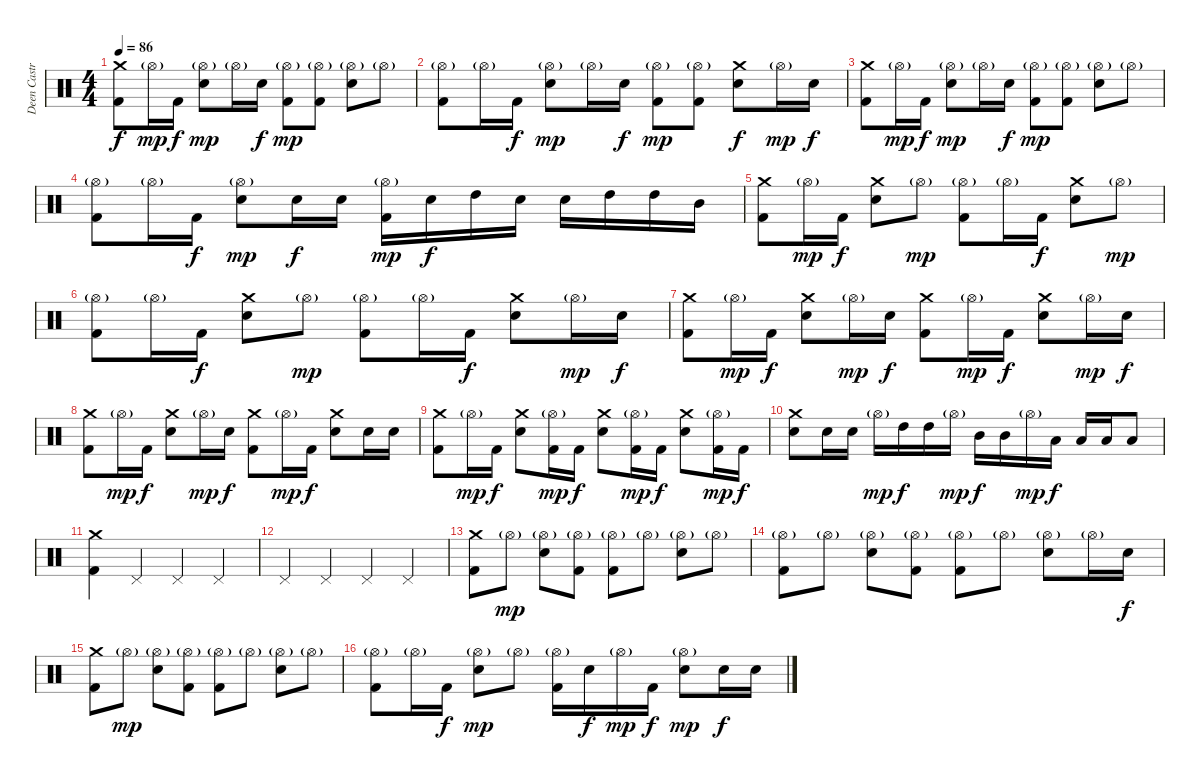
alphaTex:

\track ("Deen Castronovo" "Deen Castr") {instrument percussion}
\staff {score}
\articulation defaults
\ts (4 4)
\tempo 86
\clef neutral
\ks c
("Crash medium (hit)" "Kick (hit) 2").8{dy f} "Hi-Hat (open)"{g}.16{dy mp} "Kick (hit) 2".16{dy f} ("Hi-Hat (open)"{g} "Electric Snare (hit)").8{dy mp} "Hi-Hat (open)"{g}.16 "Electric Snare (hit)".16{dy f} ("Hi-Hat (open)"{g} "Kick (hit) 2").8{dy mp} ("Hi-Hat (open)"{g} "Kick (hit) 2").8 ("Hi-Hat (open)"{g} "Electric Snare (hit)").8 "Hi-Hat (open)"{g}.8 |
("Hi-Hat (open)"{g} "Kick (hit) 2").8 "Hi-Hat (open)"{g}.16 "Kick (hit) 2".16{dy f} ("Hi-Hat (open)"{g} "Electric Snare (hit)").8{dy mp} "Hi-Hat (open)"{g}.16 "Electric Snare (hit)".16{dy f} ("Hi-Hat (open)"{g} "Kick (hit) 2").8{dy mp} ("Hi-Hat (open)"{g} "Kick (hit) 2").8 ("Crash medium (hit)" "Electric Snare (hit)").8{dy f} "Hi-Hat (open)"{g}.16{dy mp} "Electric Snare (hit)".16{dy f} |
("Crash medium (hit)" "Kick (hit) 2").8 "Hi-Hat (open)"{g}.16{dy mp} "Kick (hit) 2".16{dy f} ("Hi-Hat (open)"{g} "Electric Snare (hit)").8{dy mp} "Hi-Hat (open)"{g}.16 "Electric Snare (hit)".16{dy f} ("Hi-Hat (open)"{g} "Kick (hit) 2").8{dy mp} ("Hi-Hat (open)"{g} "Kick (hit) 2").8 ("Hi-Hat (open)"{g} "Electric Snare (hit)").8 "Hi-Hat (open)"{g}.8 |
("Hi-Hat (open)"{g} "Kick (hit) 2").8 "Hi-Hat (open)"{g}.16 "Kick (hit) 2".16{dy f} ("Hi-Hat (open)"{g} "Electric Snare (hit)").8{dy mp} "Electric Snare (hit)".16{dy f} "Electric Snare (hit)".16 ("Hi-Hat (open)"{g} "Kick (hit) 2").16{dy mp} "Electric Snare (hit)".16{dy f} "High Tom (hit)".16 "Electric Snare (hit)".16 "Electric Snare (hit)".16 "High Tom (hit)".16 "High Tom (hit)".16 "Mid Tom (hit)".16 |
("Crash medium (hit)" "Kick (hit) 2").8 "Hi-Hat (open)"{g}.16{dy mp} "Kick (hit) 2".16{dy f} ("Crash medium (hit)" "Electric Snare (hit)").8 "Hi-Hat (open)"{g}.8{dy mp} ("Hi-Hat (open)"{g} "Kick (hit) 2").8 "Hi-Hat (open)"{g}.16 "Kick (hit) 2".16{dy f} ("Crash medium (hit)" "Electric Snare (hit)").8 "Hi-Hat (open)"{g}.8{dy mp} |
("Hi-Hat (open)"{g} "Kick (hit) 2").8 "Hi-Hat (open)"{g}.16 "Kick (hit) 2".16{dy f} ("Crash medium (hit)" "Electric Snare (hit)").8 "Hi-Hat (open)"{g}.8{dy mp} ("Hi-Hat (open)"{g} "Kick (hit) 2").8 "Hi-Hat (open)"{g}.16 "Kick (hit) 2".16{dy f} ("Crash medium (hit)" "Electric Snare (hit)").8 "Hi-Hat (open)"{g}.16{dy mp} "Electric Snare (hit)".16{dy f} |
("Crash medium (hit)" "Kick (hit) 2").8 "Hi-Hat (open)"{g}.16{dy mp} "Kick (hit) 2".16{dy f} ("Crash medium (hit)" "Electric Snare (hit)").8 "Hi-Hat (open)"{g}.16{dy mp} "Electric Snare (hit)".16{dy f} ("Crash medium (hit)" "Kick (hit) 2").8 "Hi-Hat (open)"{g}.16{dy mp} "Kick (hit) 2".16{dy f} ("Crash medium (hit)" "Electric Snare (hit)").8 "Hi-Hat (open)"{g}.16{dy mp} "Electric Snare (hit)".16{dy f} |
("Crash medium (hit)" "Kick (hit) 2").8 "Hi-Hat (open)"{g}.16{dy mp} "Kick (hit) 2".16{dy f} ("Crash medium (hit)" "Electric Snare (hit)").8 "Hi-Hat (open)"{g}.16{dy mp} "Electric Snare (hit)".16{dy f} ("Crash medium (hit)" "Kick (hit) 2").8 "Hi-Hat (open)"{g}.16{dy mp} "Kick (hit) 2".16{dy f} ("Crash medium (hit)" "Electric Snare (hit)").8 "Electric Snare (hit)".16 "Electric Snare (hit)".16 |
("Crash medium (hit)" "Kick (hit) 2").8 "Hi-Hat (open)"{g}.16{dy mp} "Kick (hit) 2".16{dy f} ("Crash medium (hit)" "Electric Snare (hit)").8 ("Hi-Hat (open)"{g} "Kick (hit) 2").16{dy mp} "Kick (hit) 2".16{dy f} ("Crash medium (hit)" "Electric Snare (hit)").8 ("Hi-Hat (open)"{g} "Kick (hit) 2").16{dy mp} "Kick (hit) 2".16{dy f} ("Crash medium (hit)" "Electric Snare (hit)").8 ("Hi-Hat (open)"{g} "Kick (hit) 2").16{dy mp} "Kick (hit) 2".16{dy f} |
("Crash medium (hit)" "Electric Snare (hit)").8 "Electric Snare (hit)".16 "Electric Snare (hit)".16 "Hi-Hat (open)"{g}.16{dy mp} "High Tom (hit)".16{dy f} "High Tom (hit)".16 "Hi-Hat (open)"{g}.16{dy mp} "Mid Tom (hit)".16{dy f} "Mid Tom (hit)".16 "Hi-Hat (open)"{g}.16{dy mp} "Low Tom (hit)".16{dy f} "Low Tom (hit)".16 "Low Tom (hit)".16 "Low Tom (hit)".8 |
("Crash medium (hit)" "Kick (hit) 2").4 "Pedal Hi-Hat (hit)".4 "Pedal Hi-Hat (hit)".4 "Pedal Hi-Hat (hit)".4 |
"Pedal Hi-Hat (hit)".4 "Pedal Hi-Hat (hit)".4 "Pedal Hi-Hat (hit)".4 "Pedal Hi-Hat (hit)".4 |
("Crash medium (hit)" "Kick (hit) 2").8 "Hi-Hat (open)"{g}.8{dy mp} ("Hi-Hat (open)"{g} "Electric Snare (hit)").8 ("Hi-Hat (open)"{g} "Kick (hit) 2").8 ("Hi-Hat (open)"{g} "Kick (hit) 2").8 "Hi-Hat (open)"{g}.8 ("Hi-Hat (open)"{g} "Electric Snare (hit)").8 "Hi-Hat (open)"{g}.8 |
("Hi-Hat (open)"{g} "Kick (hit) 2").8 "Hi-Hat (open)"{g}.8 ("Hi-Hat (open)"{g} "Electric Snare (hit)").8 ("Hi-Hat (open)"{g} "Kick (hit) 2").8 ("Hi-Hat (open)"{g} "Kick (hit) 2").8 "Hi-Hat (open)"{g}.8 ("Hi-Hat (open)"{g} "Electric Snare (hit)").8 "Hi-Hat (open)"{g}.16 "Electric Snare (hit)".16{dy f} |
("Crash medium (hit)" "Kick (hit) 2").8 "Hi-Hat (open)"{g}.8{dy mp} ("Hi-Hat (open)"{g} "Electric Snare (hit)").8 ("Hi-Hat (open)"{g} "Kick (hit) 2").8 ("Hi-Hat (open)"{g} "Kick (hit) 2").8 "Hi-Hat (open)"{g}.8 ("Hi-Hat (open)"{g} "Electric Snare (hit)").8 "Hi-Hat (open)"{g}.8 |
("Hi-Hat (open)"{g} "Kick (hit) 2").8 "Hi-Hat (open)"{g}.16 "Kick (hit) 2".16{dy f} ("Hi-Hat (open)"{g} "Electric Snare (hit)").8{dy mp} "Hi-Hat (open)"{g}.8 ("Hi-Hat (open)"{g} "Kick (hit) 2").16 "Electric Snare (hit)".16{dy f} "Hi-Hat (open)"{g}.16{dy mp} "Kick (hit) 2".16{dy f} ("Hi-Hat (open)"{g} "Electric Snare (hit)").8{dy mp} "Electric Snare (hit)".16{dy f} "Electric Snare (hit)".16
